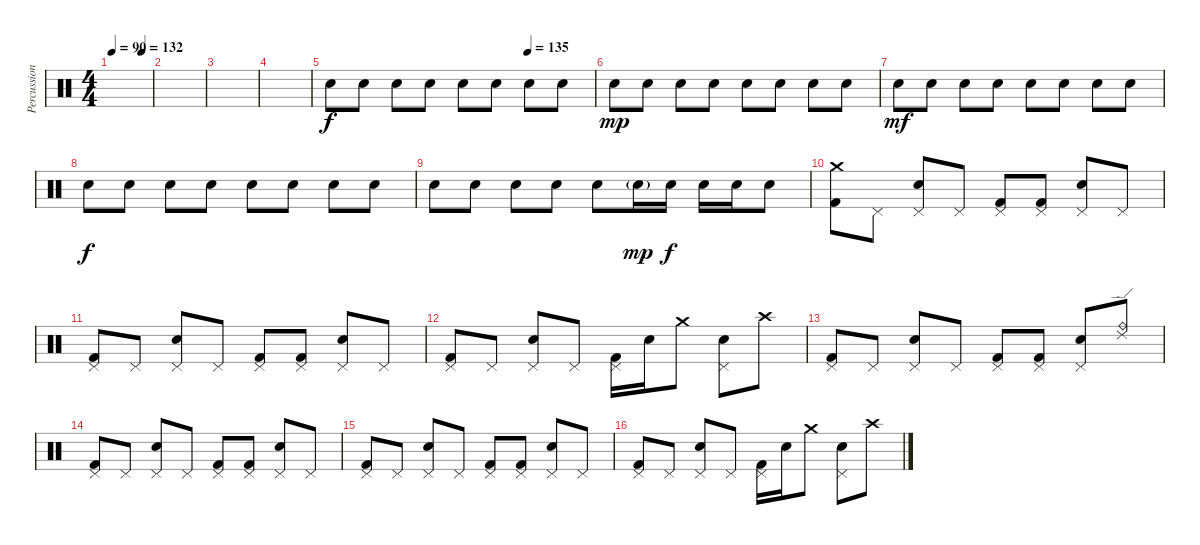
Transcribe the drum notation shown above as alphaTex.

\track ("Percussions" "Percussion") {instrument percussion}
\staff {score}
\articulation defaults
\ts (4 4)
\tempo 90
\tempo (132 0.75)
\clef neutral
\ks c
|
|
|
|
\tempo (135 0.75)
"Snare (hit) 2".8 "Snare (hit) 2".8 "Snare (hit) 2".8 "Snare (hit) 2".8 "Snare (hit) 2".8 "Snare (hit) 2".8 "Snare (hit) 2".8 "Snare (hit) 2".8 |
"Snare (hit) 2".8{dy mp} "Snare (hit) 2".8 "Snare (hit) 2".8 "Snare (hit) 2".8 "Snare (hit) 2".8 "Snare (hit) 2".8 "Snare (hit) 2".8 "Snare (hit) 2".8 |
"Snare (hit) 2".8{dy mf} "Snare (hit) 2".8 "Snare (hit) 2".8 "Snare (hit) 2".8 "Snare (hit) 2".8 "Snare (hit) 2".8 "Snare (hit) 2".8 "Snare (hit) 2".8 |
"Snare (hit) 2".8{dy f} "Snare (hit) 2".8 "Snare (hit) 2".8 "Snare (hit) 2".8 "Snare (hit) 2".8 "Snare (hit) 2".8 "Snare (hit) 2".8 "Snare (hit) 2".8 |
"Snare (hit) 2".8 "Snare (hit) 2".8 "Snare (hit) 2".8 "Snare (hit) 2".8 "Snare (hit) 2".8 "Snare (hit) 2"{g}.16{dy mp} "Snare (hit) 2".16{dy f} "Snare (hit) 2".16 "Snare (hit) 2".16 "Snare (hit) 2".8 |
("Crash medium (hit)" "Kick (hit) 2").8 "Pedal Hi-Hat (hit)".8 ("Pedal Hi-Hat (hit)" "Electric Snare (hit)").8 "Pedal Hi-Hat (hit)".8 ("Pedal Hi-Hat (hit)" "Kick (hit) 2").8 ("Pedal Hi-Hat (hit)" "Kick (hit) 2").8 ("Pedal Hi-Hat (hit)" "Electric Snare (hit)").8 "Pedal Hi-Hat (hit)".8 |
("Pedal Hi-Hat (hit)" "Kick (hit) 2").8 "Pedal Hi-Hat (hit)".8 ("Pedal Hi-Hat (hit)" "Electric Snare (hit)").8 "Pedal Hi-Hat (hit)".8 ("Pedal Hi-Hat (hit)" "Kick (hit) 2").8 ("Pedal Hi-Hat (hit)" "Kick (hit) 2").8 ("Pedal Hi-Hat (hit)" "Electric Snare (hit)").8 "Pedal Hi-Hat (hit)".8 |
("Pedal Hi-Hat (hit)" "Kick (hit) 2").8 "Pedal Hi-Hat (hit)".8 ("Pedal Hi-Hat (hit)" "Electric Snare (hit)").8 "Pedal Hi-Hat (hit)".8 ("Pedal Hi-Hat (hit)" "Kick (hit) 2").16 "Electric Snare (hit)".16 "Crash medium (hit)".8 ("Pedal Hi-Hat (hit)" "Electric Snare (hit)").8 "Crash high (hit)".8 |
("Pedal Hi-Hat (hit)" "Kick (hit) 2").8 "Pedal Hi-Hat (hit)".8 ("Pedal Hi-Hat (hit)" "Electric Snare (hit)").8 "Pedal Hi-Hat (hit)".8 ("Pedal Hi-Hat (hit)" "Kick (hit) 2").8 ("Pedal Hi-Hat (hit)" "Kick (hit) 2").8 ("Pedal Hi-Hat (hit)" "Electric Snare (hit)").8 ("Ride (bell)" "Ride (edge) 2").8 |
("Pedal Hi-Hat (hit)" "Kick (hit) 2").8 "Pedal Hi-Hat (hit)".8 ("Pedal Hi-Hat (hit)" "Electric Snare (hit)").8 "Pedal Hi-Hat (hit)".8 ("Pedal Hi-Hat (hit)" "Kick (hit) 2").8 ("Pedal Hi-Hat (hit)" "Kick (hit) 2").8 ("Pedal Hi-Hat (hit)" "Electric Snare (hit)").8 "Pedal Hi-Hat (hit)".8 |
("Pedal Hi-Hat (hit)" "Kick (hit) 2").8 "Pedal Hi-Hat (hit)".8 ("Pedal Hi-Hat (hit)" "Electric Snare (hit)").8 "Pedal Hi-Hat (hit)".8 ("Pedal Hi-Hat (hit)" "Kick (hit) 2").8 ("Pedal Hi-Hat (hit)" "Kick (hit) 2").8 ("Pedal Hi-Hat (hit)" "Electric Snare (hit)").8 "Pedal Hi-Hat (hit)".8 |
("Pedal Hi-Hat (hit)" "Kick (hit) 2").8 "Pedal Hi-Hat (hit)".8 ("Pedal Hi-Hat (hit)" "Electric Snare (hit)").8 "Pedal Hi-Hat (hit)".8 ("Pedal Hi-Hat (hit)" "Kick (hit) 2").16 "Electric Snare (hit)".16 "Crash medium (hit)".8 ("Pedal Hi-Hat (hit)" "Electric Snare (hit)").8 "Crash high (hit)".8
